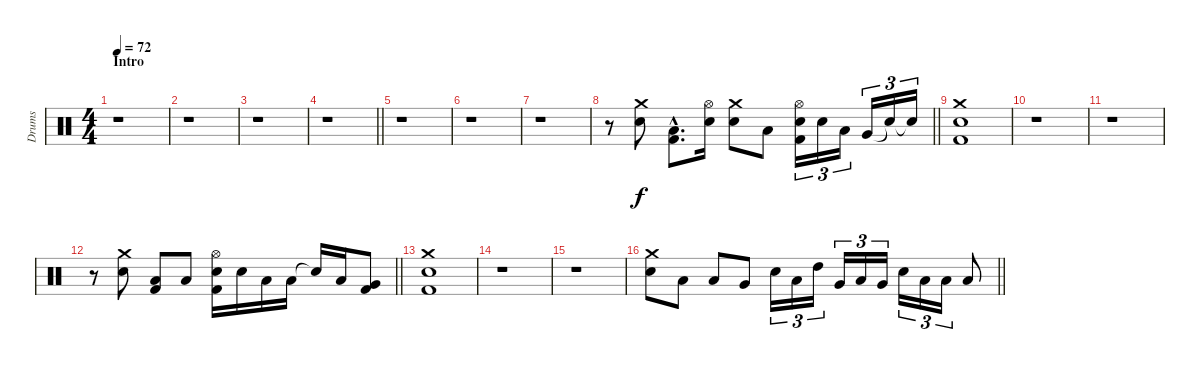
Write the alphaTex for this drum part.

\track ("Drums" "Drums") {instrument percussion}
\staff {score}
\articulation defaults
\ts (4 4)
\section ("" "Intro")
\tempo 72
\clef neutral
\ks c
r.1{dy f} |
r.1 |
r.1 |
\barLineRight lightlight
r.1 |
\section ("" "")
r.1 |
r.1 |
r.1 |
\barLineRight lightlight
r.8 ("Crash medium (hit)" "Electric Snare (hit)").8 ("Low Tom (hit)"{hac} "Kick (hit) 2"{hac}).8{d} ("Hi-Hat (open)" "Electric Snare (hit)").16 ("Crash medium (hit)" "Electric Snare (hit)").8 "Low Tom (hit)".8 ("Hi-Hat (open)" "Electric Snare (hit)" "Kick (hit) 2").16{tu (3 2)} "Electric Snare (hit)".16{tu (3 2)} "Low Tom (hit)".16{tu (3 2)} "Very Low Tom (hit)".16{tu (3 2)} "Snare (hit)"{t}.16{tu (3 2)} "Snare (hit)"{t}.16{tu (3 2)} |
\section ("" "")
("Crash medium (hit)" "Electric Snare (hit)" "Kick (hit) 2").1 |
r.1 |
r.1 |
\barLineRight lightlight
r.8 ("Crash medium (hit)" "Electric Snare (hit)").8 ("Low Tom (hit)" "Kick (hit) 2").8 "Low Tom (hit)".8 ("Hi-Hat (open)" "Electric Snare (hit)" "Kick (hit) 2").16 "Electric Snare (hit)".16 "Low Tom (hit)".16 "Low Tom (hit)".16 "Snare (hit)"{t}.16 "Low Tom (hit)".16 ("Very Low Tom (hit)" "Kick (hit) 2").8 |
\section ("" "")
("Crash medium (hit)" "Electric Snare (hit)" "Kick (hit) 2").1 |
r.1 |
r.1 |
\barLineRight lightlight
("Crash medium (hit)" "Electric Snare (hit)").8 "Low Tom (hit)".8 "Low Tom (hit)".8 "Very Low Tom (hit)".8 "Electric Snare (hit)".16{tu (3 2)} "Low Tom (hit)".16{tu (3 2)} "High Tom (hit)".16{tu (3 2)} "Very Low Tom (hit)".16{tu (3 2)} "Low Tom (hit)".16{tu (3 2)} "Very Low Tom (hit)".16{tu (3 2)} "Electric Snare (hit)".16{tu (3 2)} "Low Tom (hit)".16{tu (3 2)} "Low Tom (hit)".16{tu (3 2)} "Low Tom (hit)".8
